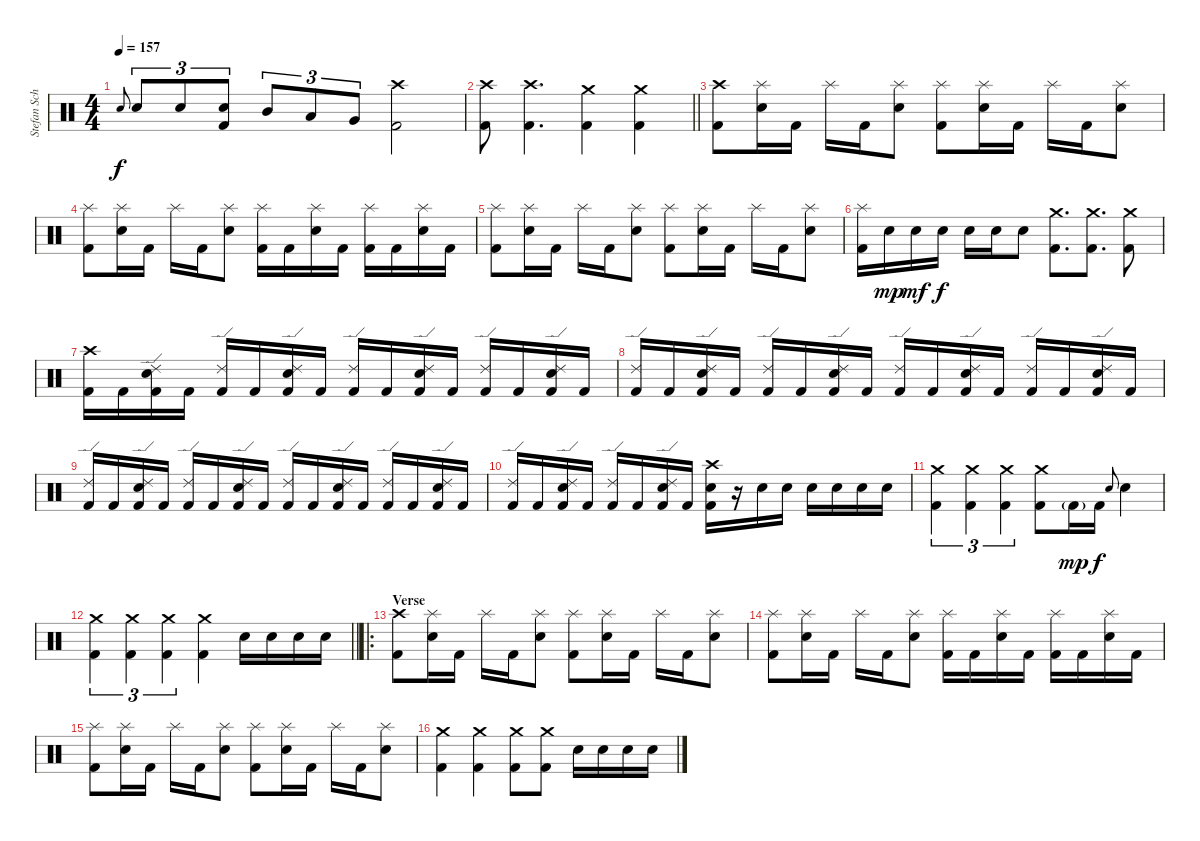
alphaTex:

\track ("Stefan Schwarzmann" "Stefan Sch") {instrument percussion}
\staff {score}
\articulation defaults
\ts (4 4)
\tempo 157
\clef neutral
\ks c "Snare (hit) 2".8{gr onbeat dy f} "Snare (hit) 2".8{tu (3 2)} "Snare (hit) 2".8{tu (3 2)}
("Snare (hit) 2" "Kick (hit) 2").8{tu (3 2)} "Mid Tom (hit)".8{tu (3 2)} "Low Tom (hit)".8{tu (3 2)} "Very Low Tom (hit)".8{tu (3 2)} ("Crash high (hit)" "Kick (hit) 2").2 |
\barLineRight lightlight
("Crash high (hit)" "Kick (hit) 2").8 ("Crash high (hit)" "Kick (hit) 2").4{d} ("Crash medium (hit)" "Kick (hit) 2").4 ("Crash medium (hit)" "Kick (hit) 2").4 |
\section ("" "")
("Crash high (hit)" "Kick (hit) 2").8 ("Splash (hit)" "Snare (hit) 2").16 "Kick (hit) 2".16 "Splash (hit)".16 "Kick (hit) 2".16 ("Splash (hit)" "Snare (hit) 2").8 ("Splash (hit)" "Kick (hit) 2").8 ("Splash (hit)" "Snare (hit) 2").16 "Kick (hit) 2".16 "Splash (hit)".16 "Kick (hit) 2".16 ("Splash (hit)" "Snare (hit) 2").8 |
("Splash (hit)" "Kick (hit) 2").8 ("Splash (hit)" "Snare (hit) 2").16 "Kick (hit) 2".16 "Splash (hit)".16 "Kick (hit) 2".16 ("Splash (hit)" "Snare (hit) 2").8 ("Splash (hit)" "Kick (hit) 2").16 "Kick (hit) 2".16 ("Splash (hit)" "Snare (hit) 2").16 "Kick (hit) 2".16 ("Splash (hit)" "Kick (hit) 2").16 "Kick (hit) 2".16 ("Splash (hit)" "Snare (hit) 2").16 "Kick (hit) 2".16 |
("Splash (hit)" "Kick (hit) 2").8 ("Splash (hit)" "Snare (hit) 2").16 "Kick (hit) 2".16 "Splash (hit)".16 "Kick (hit) 2".16 ("Splash (hit)" "Snare (hit) 2").8 ("Splash (hit)" "Kick (hit) 2").8 ("Splash (hit)" "Snare (hit) 2").16 "Kick (hit) 2".16 "Splash (hit)".16 "Kick (hit) 2".16 ("Splash (hit)" "Snare (hit) 2").8 |
("Splash (hit)" "Kick (hit) 2").16 "Snare (hit) 2".16{dy mp} "Snare (hit) 2".16{dy mf} "Snare (hit) 2".16{dy f} "Snare (hit) 2".16 "Snare (hit) 2".16 "Snare (hit) 2".8 ("Crash medium (hit)" "Kick (hit) 2").8{d} ("Crash medium (hit)" "Kick (hit) 2").8{d} ("Crash medium (hit)" "Kick (hit) 2").8 |
("Crash high (hit)" "Kick (hit) 2").16 "Kick (hit) 2".16 ("Ride (edge) 2" "Snare (hit) 2" "Kick (hit) 2").16 "Kick (hit) 2".16 ("Ride (edge) 2" "Kick (hit) 2").16 "Kick (hit) 2".16 ("Ride (edge) 2" "Snare (hit) 2" "Kick (hit) 2").16 "Kick (hit) 2".16 ("Ride (edge) 2" "Kick (hit) 2").16 "Kick (hit) 2".16 ("Ride (edge) 2" "Snare (hit) 2" "Kick (hit) 2").16 "Kick (hit) 2".16 ("Ride (edge) 2" "Kick (hit) 2").16 "Kick (hit) 2".16 ("Ride (edge) 2" "Snare (hit) 2" "Kick (hit) 2").16 "Kick (hit) 2".16 |
("Ride (edge) 2" "Kick (hit) 2").16 "Kick (hit) 2".16 ("Ride (edge) 2" "Snare (hit) 2" "Kick (hit) 2").16 "Kick (hit) 2".16 ("Ride (edge) 2" "Kick (hit) 2").16 "Kick (hit) 2".16 ("Ride (edge) 2" "Snare (hit) 2" "Kick (hit) 2").16 "Kick (hit) 2".16 ("Ride (edge) 2" "Kick (hit) 2").16 "Kick (hit) 2".16 ("Ride (edge) 2" "Snare (hit) 2" "Kick (hit) 2").16 "Kick (hit) 2".16 ("Ride (edge) 2" "Kick (hit) 2").16 "Kick (hit) 2".16 ("Ride (edge) 2" "Snare (hit) 2" "Kick (hit) 2").16 "Kick (hit) 2".16 |
("Ride (edge) 2" "Kick (hit) 2").16 "Kick (hit) 2".16 ("Ride (edge) 2" "Snare (hit) 2" "Kick (hit) 2").16 "Kick (hit) 2".16 ("Ride (edge) 2" "Kick (hit) 2").16 "Kick (hit) 2".16 ("Ride (edge) 2" "Snare (hit) 2" "Kick (hit) 2").16 "Kick (hit) 2".16 ("Ride (edge) 2" "Kick (hit) 2").16 "Kick (hit) 2".16 ("Ride (edge) 2" "Snare (hit) 2" "Kick (hit) 2").16 "Kick (hit) 2".16 ("Ride (edge) 2" "Kick (hit) 2").16 "Kick (hit) 2".16 ("Ride (edge) 2" "Snare (hit) 2" "Kick (hit) 2").16 "Kick (hit) 2".16 |
("Ride (edge) 2" "Kick (hit) 2").16 "Kick (hit) 2".16 ("Ride (edge) 2" "Snare (hit) 2" "Kick (hit) 2").16 "Kick (hit) 2".16 ("Ride (edge) 2" "Kick (hit) 2").16 "Kick (hit) 2".16 ("Ride (edge) 2" "Snare (hit) 2" "Kick (hit) 2").16 "Kick (hit) 2".16 ("Crash high (hit)" "Snare (hit) 2" "Kick (hit) 2").16 r.16 "Snare (hit) 2".16 "Snare (hit) 2".16 "Snare (hit) 2".16 "Snare (hit) 2".16 "Snare (hit) 2".16 "Snare (hit) 2".16 |
("Crash medium (hit)" "Kick (hit) 2").4{tu (3 2)} ("Crash medium (hit)" "Kick (hit) 2").4{tu (3 2)} ("Crash medium (hit)" "Kick (hit) 2").4{tu (3 2)} ("Crash medium (hit)" "Kick (hit) 2").8 "Kick (hit) 2"{g}.16{dy mp} "Kick (hit) 2".16{dy f} "Snare (hit) 2".8{gr onbeat} "Snare (hit) 2".4 |
\barLineRight lightlight
("Crash medium (hit)" "Kick (hit) 2").4{tu (3 2)} ("Crash medium (hit)" "Kick (hit) 2").4{tu (3 2)} ("Crash medium (hit)" "Kick (hit) 2").4{tu (3 2)} ("Crash medium (hit)" "Kick (hit) 2").4 "Snare (hit) 2".16 "Snare (hit) 2".16 "Snare (hit) 2".16 "Snare (hit) 2".16 |
\ro
\section ("" "Verse")
("Crash high (hit)" "Kick (hit) 2").8 ("Splash (hit)" "Snare (hit) 2").16 "Kick (hit) 2".16 "Splash (hit)".16 "Kick (hit) 2".16 ("Splash (hit)" "Snare (hit) 2").8 ("Splash (hit)" "Kick (hit) 2").8 ("Splash (hit)" "Snare (hit) 2").16 "Kick (hit) 2".16 "Splash (hit)".16 "Kick (hit) 2".16 ("Splash (hit)" "Snare (hit) 2").8 |
("Splash (hit)" "Kick (hit) 2").8 ("Splash (hit)" "Snare (hit) 2").16 "Kick (hit) 2".16 "Splash (hit)".16 "Kick (hit) 2".16 ("Splash (hit)" "Snare (hit) 2").8 ("Splash (hit)" "Kick (hit) 2").16 "Kick (hit) 2".16 ("Splash (hit)" "Snare (hit) 2").16 "Kick (hit) 2".16 ("Splash (hit)" "Kick (hit) 2").16 "Kick (hit) 2".16 ("Splash (hit)" "Snare (hit) 2").16 "Kick (hit) 2".16 |
("Splash (hit)" "Kick (hit) 2").8 ("Splash (hit)" "Snare (hit) 2").16 "Kick (hit) 2".16 "Splash (hit)".16 "Kick (hit) 2".16 ("Splash (hit)" "Snare (hit) 2").8 ("Splash (hit)" "Kick (hit) 2").8 ("Splash (hit)" "Snare (hit) 2").16 "Kick (hit) 2".16 "Splash (hit)".16 "Kick (hit) 2".16 ("Splash (hit)" "Snare (hit) 2").8 |
("Crash medium (hit)" "Kick (hit) 2").4 ("Crash medium (hit)" "Kick (hit) 2").4 ("Crash medium (hit)" "Kick (hit) 2").8 ("Crash medium (hit)" "Kick (hit) 2").8 "Snare (hit) 2".16 "Snare (hit) 2".16 "Snare (hit) 2".16 "Snare (hit) 2".16
